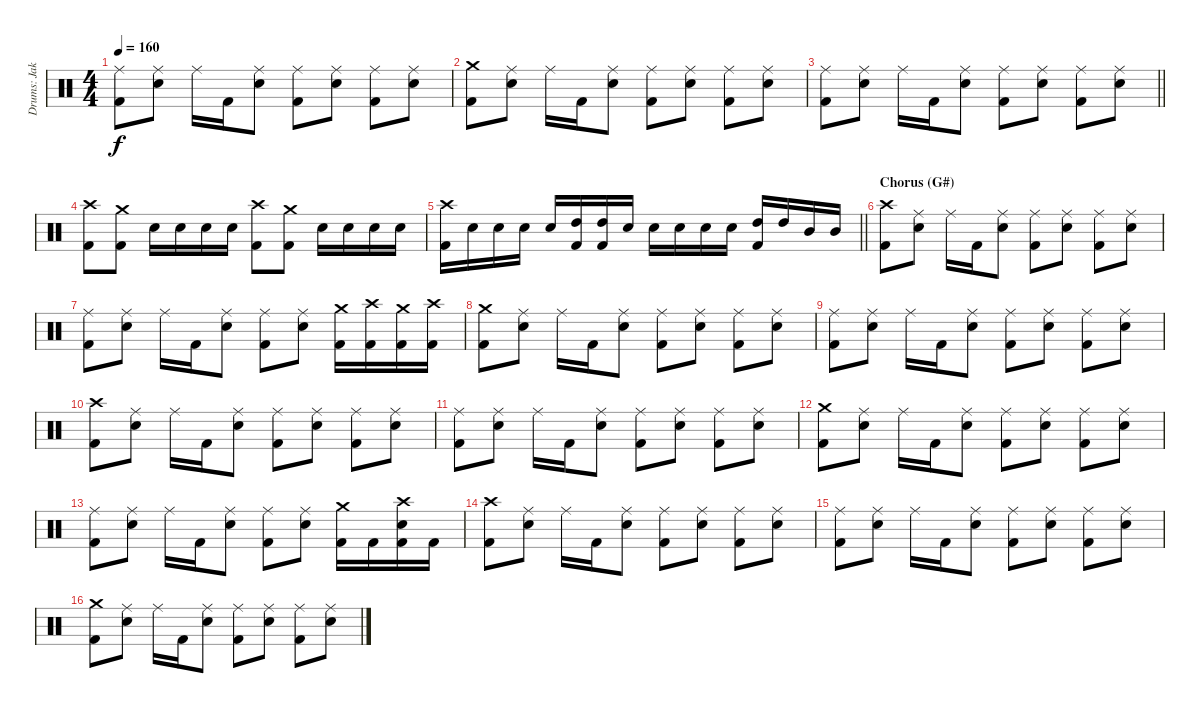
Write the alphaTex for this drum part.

\track ("Drums: Jake" "Drums: Jak") {instrument percussion}
\staff {score}
\articulation defaults
\ts (4 4)
\tempo 160
\clef neutral
\ks c
("Ride (middle)" "Kick (hit) 2").8{dy f} ("Ride (middle)" "Snare (hit) 2").8 "Ride (middle)".16 "Kick (hit) 2".16 ("Ride (middle)" "Snare (hit) 2").8 ("Ride (middle)" "Kick (hit) 2").8 ("Ride (middle)" "Snare (hit) 2").8 ("Ride (middle)" "Kick (hit) 2").8 ("Ride (middle)" "Snare (hit) 2").8 |
("Crash medium (hit)" "Kick (hit) 2").8 ("Ride (middle)" "Snare (hit) 2").8 "Ride (middle)".16 "Kick (hit) 2".16 ("Ride (middle)" "Snare (hit) 2").8 ("Ride (middle)" "Kick (hit) 2").8 ("Ride (middle)" "Snare (hit) 2").8 ("Ride (middle)" "Kick (hit) 2").8 ("Ride (middle)" "Snare (hit) 2").8 |
\barLineRight lightlight
("Ride (middle)" "Kick (hit) 2").8 ("Ride (middle)" "Snare (hit) 2").8 "Ride (middle)".16 "Kick (hit) 2".16 ("Ride (middle)" "Snare (hit) 2").8 ("Ride (middle)" "Kick (hit) 2").8 ("Ride (middle)" "Snare (hit) 2").8 ("Ride (middle)" "Kick (hit) 2").8 ("Ride (middle)" "Snare (hit) 2").8 |
("Crash high (hit)" "Kick (hit) 2").8 ("Crash medium (hit)" "Kick (hit) 2").8 "Snare (hit) 2".16 "Snare (hit) 2".16 "Snare (hit) 2".16 "Snare (hit) 2".16 ("Crash high (hit)" "Kick (hit) 2").8 ("Crash medium (hit)" "Kick (hit) 2").8 "Snare (hit) 2".16 "Snare (hit) 2".16 "Snare (hit) 2".16 "Snare (hit) 2".16 |
\barLineRight lightlight
("Crash high (hit)" "Kick (hit) 2").16 "Snare (hit) 2".16 "Snare (hit) 2".16 "Snare (hit) 2".16 "Snare (hit) 2".16 ("High Tom (hit)" "Kick (hit) 2").16 ("High Tom (hit)" "Kick (hit) 2").16 "Snare (hit) 2".16 "Snare (hit) 2".16 "Snare (hit) 2".16 "Snare (hit) 2".16 "Snare (hit) 2".16 ("High Tom (hit)" "Kick (hit) 2").16 "High Tom (hit)".16 "Mid Tom (hit)".16 "Mid Tom (hit)".16 |
\section ("" "Chorus (G#)")
("Crash high (hit)" "Kick (hit) 2").8 ("Ride (middle)" "Snare (hit) 2").8 "Ride (middle)".16 "Kick (hit) 2".16 ("Ride (middle)" "Snare (hit) 2").8 ("Ride (middle)" "Kick (hit) 2").8 ("Ride (middle)" "Snare (hit) 2").8 ("Ride (middle)" "Kick (hit) 2").8 ("Ride (middle)" "Snare (hit) 2").8 |
("Ride (middle)" "Kick (hit) 2").8 ("Ride (middle)" "Snare (hit) 2").8 "Ride (middle)".16 "Kick (hit) 2".16 ("Ride (middle)" "Snare (hit) 2").8 ("Ride (middle)" "Kick (hit) 2").8 ("Ride (middle)" "Snare (hit) 2").8 ("Crash medium (hit)" "Kick (hit) 2").16 ("Crash high (hit)" "Kick (hit) 2").16 ("Crash medium (hit)" "Kick (hit) 2").16 ("Crash high (hit)" "Kick (hit) 2").16 |
("Crash medium (hit)" "Kick (hit) 2").8 ("Ride (middle)" "Snare (hit) 2").8 "Ride (middle)".16 "Kick (hit) 2".16 ("Ride (middle)" "Snare (hit) 2").8 ("Ride (middle)" "Kick (hit) 2").8 ("Ride (middle)" "Snare (hit) 2").8 ("Ride (middle)" "Kick (hit) 2").8 ("Ride (middle)" "Snare (hit) 2").8 |
("Ride (middle)" "Kick (hit) 2").8 ("Ride (middle)" "Snare (hit) 2").8 "Ride (middle)".16 "Kick (hit) 2".16 ("Ride (middle)" "Snare (hit) 2").8 ("Ride (middle)" "Kick (hit) 2").8 ("Ride (middle)" "Snare (hit) 2").8 ("Ride (middle)" "Kick (hit) 2").8 ("Ride (middle)" "Snare (hit) 2").8 |
("Crash high (hit)" "Kick (hit) 2").8 ("Ride (middle)" "Snare (hit) 2").8 "Ride (middle)".16 "Kick (hit) 2".16 ("Ride (middle)" "Snare (hit) 2").8 ("Ride (middle)" "Kick (hit) 2").8 ("Ride (middle)" "Snare (hit) 2").8 ("Ride (middle)" "Kick (hit) 2").8 ("Ride (middle)" "Snare (hit) 2").8 |
("Ride (middle)" "Kick (hit) 2").8 ("Ride (middle)" "Snare (hit) 2").8 "Ride (middle)".16 "Kick (hit) 2".16 ("Ride (middle)" "Snare (hit) 2").8 ("Ride (middle)" "Kick (hit) 2").8 ("Ride (middle)" "Snare (hit) 2").8 ("Ride (middle)" "Kick (hit) 2").8 ("Ride (middle)" "Snare (hit) 2").8 |
("Crash medium (hit)" "Kick (hit) 2").8 ("Ride (middle)" "Snare (hit) 2").8 "Ride (middle)".16 "Kick (hit) 2".16 ("Ride (middle)" "Snare (hit) 2").8 ("Ride (middle)" "Kick (hit) 2").8 ("Ride (middle)" "Snare (hit) 2").8 ("Ride (middle)" "Kick (hit) 2").8 ("Ride (middle)" "Snare (hit) 2").8 |
("Ride (middle)" "Kick (hit) 2").8 ("Ride (middle)" "Snare (hit) 2").8 "Ride (middle)".16 "Kick (hit) 2".16 ("Ride (middle)" "Snare (hit) 2").8 ("Ride (middle)" "Kick (hit) 2").8 ("Ride (middle)" "Snare (hit) 2").8 ("Crash medium (hit)" "Kick (hit) 2").16 "Kick (hit) 2".16 ("Crash high (hit)" "Snare (hit) 2" "Kick (hit) 2").16 "Kick (hit) 2".16 |
("Crash high (hit)" "Kick (hit) 2").8 ("Ride (middle)" "Snare (hit) 2").8 "Ride (middle)".16 "Kick (hit) 2".16 ("Ride (middle)" "Snare (hit) 2").8 ("Ride (middle)" "Kick (hit) 2").8 ("Ride (middle)" "Snare (hit) 2").8 ("Ride (middle)" "Kick (hit) 2").8 ("Ride (middle)" "Snare (hit) 2").8 |
("Ride (middle)" "Kick (hit) 2").8 ("Ride (middle)" "Snare (hit) 2").8 "Ride (middle)".16 "Kick (hit) 2".16 ("Ride (middle)" "Snare (hit) 2").8 ("Ride (middle)" "Kick (hit) 2").8 ("Ride (middle)" "Snare (hit) 2").8 ("Ride (middle)" "Kick (hit) 2").8 ("Ride (middle)" "Snare (hit) 2").8 |
("Crash medium (hit)" "Kick (hit) 2").8 ("Ride (middle)" "Snare (hit) 2").8 "Ride (middle)".16 "Kick (hit) 2".16 ("Ride (middle)" "Snare (hit) 2").8 ("Ride (middle)" "Kick (hit) 2").8 ("Ride (middle)" "Snare (hit) 2").8 ("Ride (middle)" "Kick (hit) 2").8 ("Ride (middle)" "Snare (hit) 2").8
